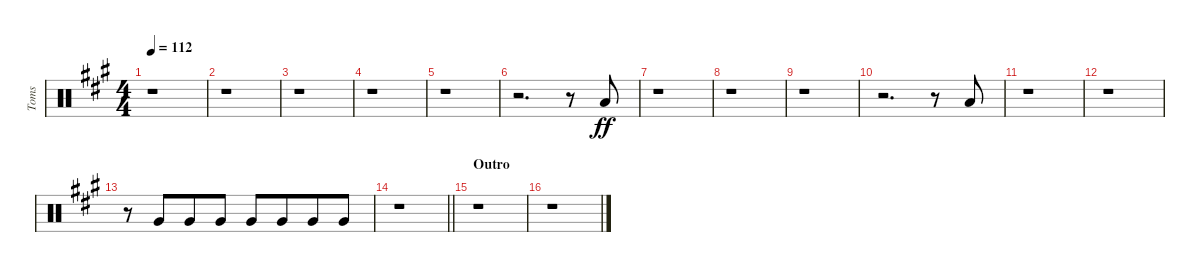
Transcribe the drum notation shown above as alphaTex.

\track ("Toms" "Toms") {instrument percussion}
\staff {score}
\articulation defaults
\ts (4 4)
\tempo 112
\clef neutral
\ks f#minor
r.1{dy ff} |
r.1 |
r.1 |
r.1 |
r.1 |
r.2{d} r.8 "Low Tom (hit)".8{beam Up} |
r.1 |
r.1 |
r.1 |
r.2{d} r.8 "Low Tom (hit)".8{beam Up} |
r.1 |
r.1 |
r.8 "Very Low Tom (hit)".8{volume 2 beam merge} "Very Low Tom (hit)".8 "Very Low Tom (hit)".8 "Very Low Tom (hit)".8{volume 16} "Very Low Tom (hit)".8{beam merge} "Very Low Tom (hit)".8 "Very Low Tom (hit)".8 |
\barLineRight lightlight
r.1 |
\section ("" "Outro")
r.1 |
r.1
